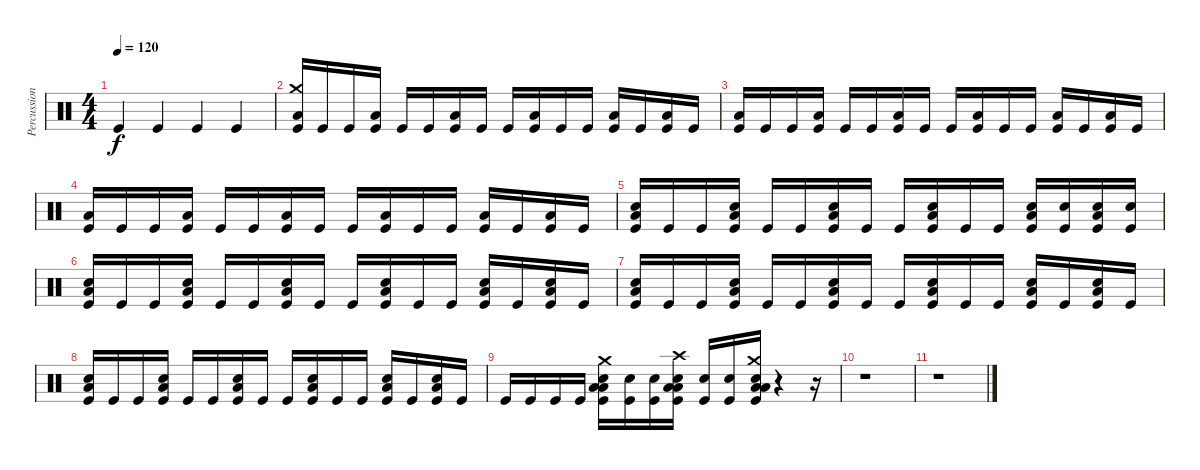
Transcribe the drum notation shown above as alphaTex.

\track ("Percussion" "Percussion") {instrument percussion}
\staff {score}
\articulation defaults
\ts (4 4)
\tempo 120
\clef neutral
\ks c "Kick (hit)".4{dy f} "Kick (hit)".4 "Kick (hit)".4 "Kick (hit)".4
|
("Crash medium (hit)" "Low Tom (hit)" "Kick (hit)").16 "Kick (hit)".16 "Kick (hit)".16 ("Low Tom (hit)" "Kick (hit)").16 "Kick (hit)".16 "Kick (hit)".16 ("Low Tom (hit)" "Kick (hit)").16 "Kick (hit)".16 "Kick (hit)".16 ("Low Tom (hit)" "Kick (hit)").16 "Kick (hit)".16 "Kick (hit)".16 ("Low Tom (hit)" "Kick (hit)").16 "Kick (hit)".16 ("Low Tom (hit)" "Kick (hit)").16 "Kick (hit)".16 |
("Low Tom (hit)" "Kick (hit)").16 "Kick (hit)".16 "Kick (hit)".16 ("Low Tom (hit)" "Kick (hit)").16 "Kick (hit)".16 "Kick (hit)".16 ("Low Tom (hit)" "Kick (hit)").16 "Kick (hit)".16 "Kick (hit)".16 ("Low Tom (hit)" "Kick (hit)").16 "Kick (hit)".16 "Kick (hit)".16 ("Low Tom (hit)" "Kick (hit)").16 "Kick (hit)".16 ("Low Tom (hit)" "Kick (hit)").16 "Kick (hit)".16 |
("Low Tom (hit)" "Kick (hit)").16 "Kick (hit)".16 "Kick (hit)".16 ("Low Tom (hit)" "Kick (hit)").16 "Kick (hit)".16 "Kick (hit)".16 ("Low Tom (hit)" "Kick (hit)").16 "Kick (hit)".16 "Kick (hit)".16 ("Low Tom (hit)" "Kick (hit)").16 "Kick (hit)".16 "Kick (hit)".16 ("Low Tom (hit)" "Kick (hit)").16 "Kick (hit)".16 ("Low Tom (hit)" "Kick (hit)").16 "Kick (hit)".16 |
("Low Tom (hit)" "Electric Snare (hit)" "Kick (hit)").16 "Kick (hit)".16 "Kick (hit)".16 ("Low Tom (hit)" "Electric Snare (hit)" "Kick (hit)").16 "Kick (hit)".16 "Kick (hit)".16 ("Low Tom (hit)" "Electric Snare (hit)" "Kick (hit)").16 "Kick (hit)".16 "Kick (hit)".16 ("Low Tom (hit)" "Electric Snare (hit)" "Kick (hit)").16 "Kick (hit)".16 "Kick (hit)".16 ("Low Tom (hit)" "Electric Snare (hit)" "Kick (hit)").16 ("Electric Snare (hit)" "Kick (hit)").16 ("Low Tom (hit)" "Electric Snare (hit)" "Kick (hit)").16 ("Electric Snare (hit)" "Kick (hit)").16 |
("Low Tom (hit)" "Electric Snare (hit)" "Kick (hit)").16 "Kick (hit)".16 "Kick (hit)".16 ("Low Tom (hit)" "Electric Snare (hit)" "Kick (hit)").16 "Kick (hit)".16 "Kick (hit)".16 ("Low Tom (hit)" "Electric Snare (hit)" "Kick (hit)").16 "Kick (hit)".16 "Kick (hit)".16 ("Low Tom (hit)" "Electric Snare (hit)" "Kick (hit)").16 "Kick (hit)".16 "Kick (hit)".16 ("Low Tom (hit)" "Electric Snare (hit)" "Kick (hit)").16 "Kick (hit)".16 ("Low Tom (hit)" "Electric Snare (hit)" "Kick (hit)").16 "Kick (hit)".16 |
("Low Tom (hit)" "Electric Snare (hit)" "Kick (hit)").16 "Kick (hit)".16 "Kick (hit)".16 ("Low Tom (hit)" "Electric Snare (hit)" "Kick (hit)").16 "Kick (hit)".16 "Kick (hit)".16 ("Low Tom (hit)" "Electric Snare (hit)" "Kick (hit)").16 "Kick (hit)".16 "Kick (hit)".16 ("Low Tom (hit)" "Electric Snare (hit)" "Kick (hit)").16 "Kick (hit)".16 "Kick (hit)".16 ("Low Tom (hit)" "Electric Snare (hit)" "Kick (hit)").16 "Kick (hit)".16 ("Low Tom (hit)" "Electric Snare (hit)" "Kick (hit)").16 "Kick (hit)".16 |
("Low Tom (hit)" "Electric Snare (hit)" "Kick (hit)").16 "Kick (hit)".16 "Kick (hit)".16 ("Low Tom (hit)" "Electric Snare (hit)" "Kick (hit)").16 "Kick (hit)".16 "Kick (hit)".16 ("Low Tom (hit)" "Electric Snare (hit)" "Kick (hit)").16 "Kick (hit)".16 "Kick (hit)".16 ("Low Tom (hit)" "Electric Snare (hit)" "Kick (hit)").16 "Kick (hit)".16 "Kick (hit)".16 ("Low Tom (hit)" "Electric Snare (hit)" "Kick (hit)").16 "Kick (hit)".16 ("Low Tom (hit)" "Electric Snare (hit)" "Kick (hit)").16 "Kick (hit)".16 |
"Kick (hit)".16 "Kick (hit)".16 "Kick (hit)".16 "Kick (hit)".16 ("Crash medium (hit)" "Low Floor Tom (hit)" "Low Tom (hit)" "Electric Snare (hit)" "Kick (hit)").16 ("Electric Snare (hit)" "Kick (hit)").16 ("Electric Snare (hit)" "Kick (hit)").16 ("Crash high (hit)" "Low Floor Tom (hit)" "Low Tom (hit)" "Electric Snare (hit)" "Kick (hit)").16 ("Electric Snare (hit)" "Kick (hit)").16 ("Electric Snare (hit)" "Kick (hit)").16 ("Crash medium (hit)" "Low Floor Tom (hit)" "Low Tom (hit)" "Electric Snare (hit)" "Kick (hit)").16 r.4 r.16 |
r.1 |
r.1
